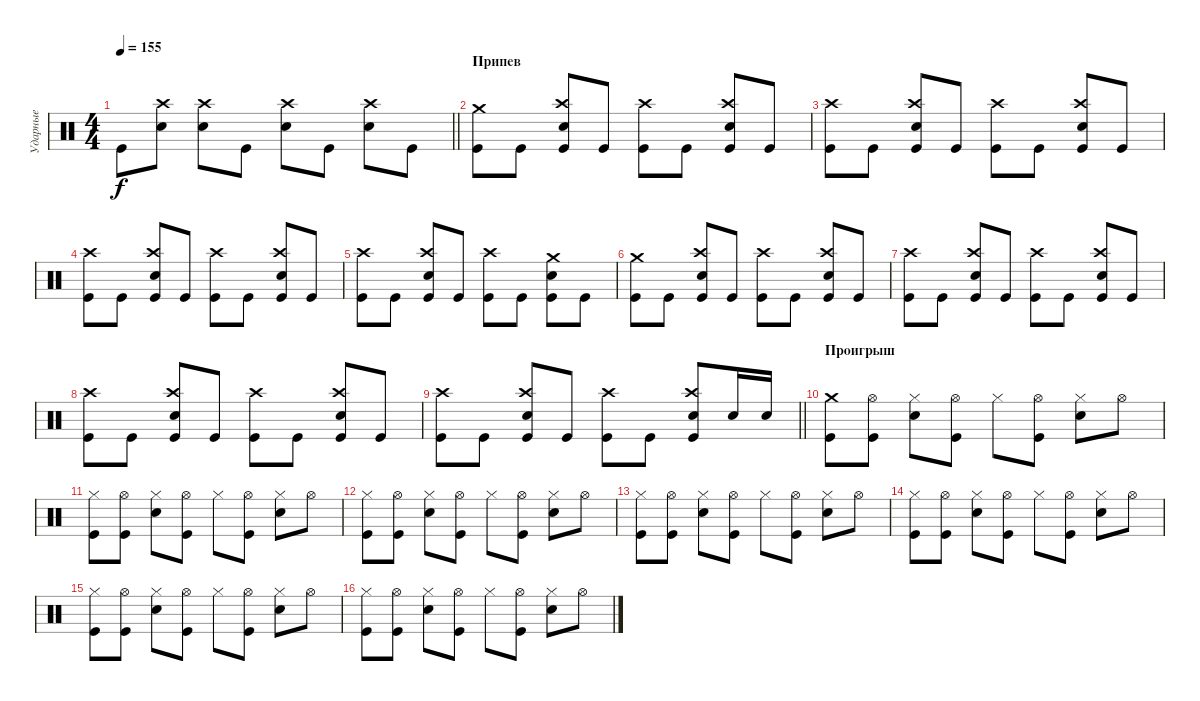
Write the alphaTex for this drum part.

\track ("Ударные" "Ударные") {instrument percussion}
\staff {score}
\articulation defaults
\ts (4 4)
\tempo 155
\clef neutral
\barLineRight lightlight
\ks c "Kick (hit)".8{dy f}
("Crash high (hit)" "Electric Snare (hit)").8 ("Crash high (hit)" "Electric Snare (hit)").8 "Kick (hit)".8 ("Crash high (hit)" "Electric Snare (hit)").8 "Kick (hit)".8 ("Crash high (hit)" "Electric Snare (hit)").8 "Kick (hit)".8 |
\section ("" "Припев")
("Crash medium (hit)" "Kick (hit)").8 "Kick (hit)".8 ("Crash high (hit)" "Electric Snare (hit)" "Kick (hit)").8 "Kick (hit)".8 ("Crash high (hit)" "Kick (hit)").8 "Kick (hit)".8 ("Crash high (hit)" "Electric Snare (hit)" "Kick (hit)").8 "Kick (hit)".8 |
("Crash high (hit)" "Kick (hit)").8 "Kick (hit)".8 ("Crash high (hit)" "Electric Snare (hit)" "Kick (hit)").8 "Kick (hit)".8 ("Crash high (hit)" "Kick (hit)").8 "Kick (hit)".8 ("Crash high (hit)" "Electric Snare (hit)" "Kick (hit)").8 "Kick (hit)".8 |
("Crash high (hit)" "Kick (hit)").8 "Kick (hit)".8 ("Crash high (hit)" "Electric Snare (hit)" "Kick (hit)").8 "Kick (hit)".8 ("Crash high (hit)" "Kick (hit)").8 "Kick (hit)".8 ("Crash high (hit)" "Electric Snare (hit)" "Kick (hit)").8 "Kick (hit)".8 |
("Crash high (hit)" "Kick (hit)").8 "Kick (hit)".8 ("Crash high (hit)" "Electric Snare (hit)" "Kick (hit)").8 "Kick (hit)".8 ("Crash high (hit)" "Kick (hit)").8 "Kick (hit)".8 ("Crash medium (hit)" "Electric Snare (hit)" "Kick (hit)").8 "Kick (hit)".8 |
("Crash medium (hit)" "Kick (hit)").8 "Kick (hit)".8 ("Crash high (hit)" "Electric Snare (hit)" "Kick (hit)").8 "Kick (hit)".8 ("Crash high (hit)" "Kick (hit)").8 "Kick (hit)".8 ("Crash high (hit)" "Electric Snare (hit)" "Kick (hit)").8 "Kick (hit)".8 |
("Crash high (hit)" "Kick (hit)").8 "Kick (hit)".8 ("Crash high (hit)" "Electric Snare (hit)" "Kick (hit)").8 "Kick (hit)".8 ("Crash high (hit)" "Kick (hit)").8 "Kick (hit)".8 ("Crash high (hit)" "Electric Snare (hit)" "Kick (hit)").8 "Kick (hit)".8 |
("Crash high (hit)" "Kick (hit)").8 "Kick (hit)".8 ("Crash high (hit)" "Electric Snare (hit)" "Kick (hit)").8 "Kick (hit)".8 ("Crash high (hit)" "Kick (hit)").8 "Kick (hit)".8 ("Crash high (hit)" "Electric Snare (hit)" "Kick (hit)").8 "Kick (hit)".8 |
\barLineRight lightlight
("Crash high (hit)" "Kick (hit)").8 "Kick (hit)".8 ("Crash high (hit)" "Electric Snare (hit)" "Kick (hit)").8 "Kick (hit)".8 ("Crash high (hit)" "Kick (hit)").8 "Kick (hit)".8 ("Crash high (hit)" "Electric Snare (hit)" "Kick (hit)").8 "Electric Snare (hit)".16 "Electric Snare (hit)".16 |
\section ("" "Проигрыш")
("Crash medium (hit)" "Kick (hit)").8 ("Hi-Hat (open)" "Kick (hit)").8 ("Hi-Hat (closed)" "Electric Snare (hit)").8 ("Hi-Hat (open)" "Kick (hit)").8 "Hi-Hat (closed)".8 ("Hi-Hat (open)" "Kick (hit)").8 ("Hi-Hat (closed)" "Electric Snare (hit)").8 "Hi-Hat (open)".8 |
("Hi-Hat (closed)" "Kick (hit)").8 ("Hi-Hat (open)" "Kick (hit)").8 ("Hi-Hat (closed)" "Electric Snare (hit)").8 ("Hi-Hat (open)" "Kick (hit)").8 "Hi-Hat (closed)".8 ("Hi-Hat (open)" "Kick (hit)").8 ("Hi-Hat (closed)" "Electric Snare (hit)").8 "Hi-Hat (open)".8 |
("Hi-Hat (closed)" "Kick (hit)").8 ("Hi-Hat (open)" "Kick (hit)").8 ("Hi-Hat (closed)" "Electric Snare (hit)").8 ("Hi-Hat (open)" "Kick (hit)").8 "Hi-Hat (closed)".8 ("Hi-Hat (open)" "Kick (hit)").8 ("Hi-Hat (closed)" "Electric Snare (hit)").8 "Hi-Hat (open)".8 |
("Hi-Hat (closed)" "Kick (hit)").8 ("Hi-Hat (open)" "Kick (hit)").8 ("Hi-Hat (closed)" "Electric Snare (hit)").8 ("Hi-Hat (open)" "Kick (hit)").8 "Hi-Hat (closed)".8 ("Hi-Hat (open)" "Kick (hit)").8 ("Hi-Hat (closed)" "Electric Snare (hit)").8 "Hi-Hat (open)".8 |
("Hi-Hat (closed)" "Kick (hit)").8 ("Hi-Hat (open)" "Kick (hit)").8 ("Hi-Hat (closed)" "Electric Snare (hit)").8 ("Hi-Hat (open)" "Kick (hit)").8 "Hi-Hat (closed)".8 ("Hi-Hat (open)" "Kick (hit)").8 ("Hi-Hat (closed)" "Electric Snare (hit)").8 "Hi-Hat (open)".8 |
("Hi-Hat (closed)" "Kick (hit)").8 ("Hi-Hat (open)" "Kick (hit)").8 ("Hi-Hat (closed)" "Electric Snare (hit)").8 ("Hi-Hat (open)" "Kick (hit)").8 "Hi-Hat (closed)".8 ("Hi-Hat (open)" "Kick (hit)").8 ("Hi-Hat (closed)" "Electric Snare (hit)").8 "Hi-Hat (open)".8 |
("Hi-Hat (closed)" "Kick (hit)").8 ("Hi-Hat (open)" "Kick (hit)").8 ("Hi-Hat (closed)" "Electric Snare (hit)").8 ("Hi-Hat (open)" "Kick (hit)").8 "Hi-Hat (closed)".8 ("Hi-Hat (open)" "Kick (hit)").8 ("Hi-Hat (closed)" "Electric Snare (hit)").8 "Hi-Hat (open)".8
